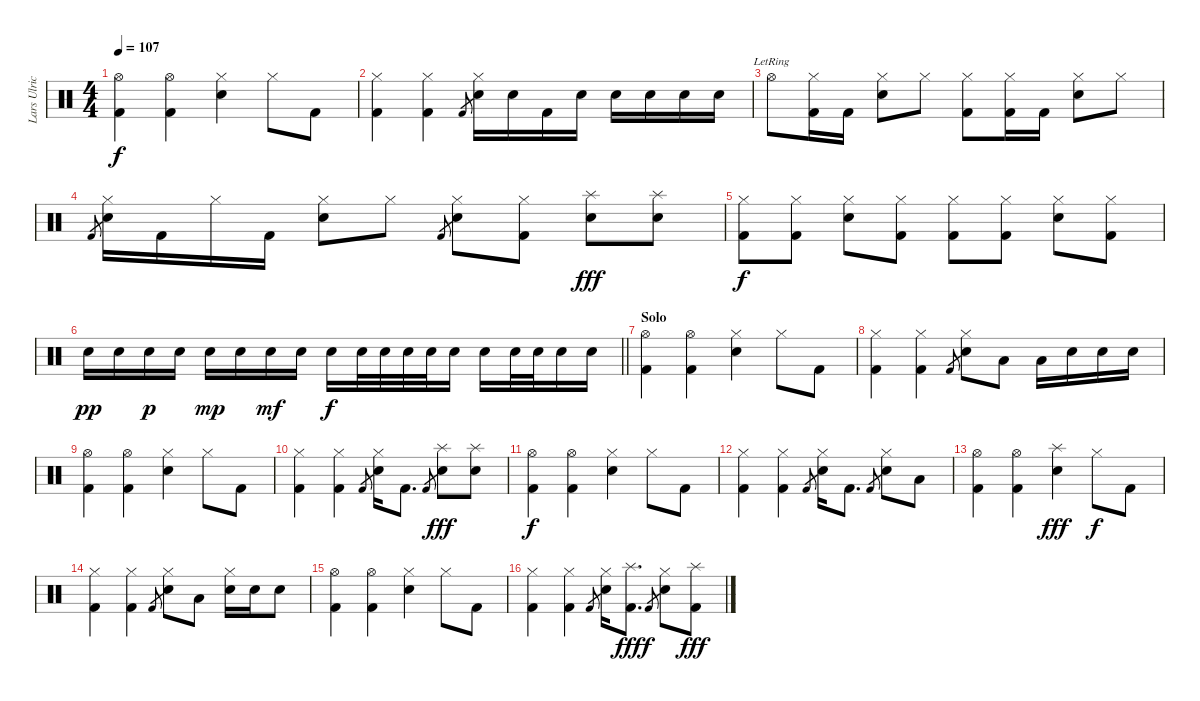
\track ("Lars Ulrich" "Lars Ulric") {instrument percussion}
\staff {score}
\articulation defaults
\ts (4 4)
\tempo 107
\clef neutral
\ks c
("Hi-Hat (open)" "Kick (hit) 2").4{dy f} ("Hi-Hat (open)" "Kick (hit) 2").4 ("Hi-Hat (closed)" "Electric Snare (hit)").4 "Hi-Hat (closed)".8 "Kick (hit) 2".8 |
("Hi-Hat (closed)" "Kick (hit) 2").4 ("Hi-Hat (closed)" "Kick (hit) 2").4 "Kick (hit) 2".8{gr} ("Hi-Hat (closed)" "Electric Snare (hit)").16 "Electric Snare (hit)".16 "Kick (hit) 2".16 "Electric Snare (hit)".16 "Electric Snare (hit)".16 "Electric Snare (hit)".16 "Electric Snare (hit)".16 "Electric Snare (hit)".16 |
"Hi-Hat (open)"{lr}.8 ("Hi-Hat (closed)" "Kick (hit) 2").16 "Kick (hit) 2".16 ("Hi-Hat (closed)" "Electric Snare (hit)").8 "Hi-Hat (closed)".8 ("Hi-Hat (closed)" "Kick (hit) 2").8 ("Hi-Hat (closed)" "Kick (hit) 2").16 "Kick (hit) 2".16 ("Hi-Hat (closed)" "Electric Snare (hit)").8 "Hi-Hat (closed)".8 |
"Kick (hit) 2".8{gr} ("Hi-Hat (closed)" "Electric Snare (hit)").16 "Kick (hit) 2".16 "Hi-Hat (closed)".16 "Kick (hit) 2".16 ("Hi-Hat (closed)" "Electric Snare (hit)").8 "Hi-Hat (closed)".8 "Kick (hit) 2".8{gr} ("Hi-Hat (closed)" "Electric Snare (hit)").8 ("Hi-Hat (closed)" "Kick (hit) 2").8 ("Splash (hit)" "Electric Snare (hit)").8{dy fff} ("Splash (hit)" "Electric Snare (hit)").8 |
("Hi-Hat (closed)" "Kick (hit) 2").8{dy f} ("Hi-Hat (closed)" "Kick (hit) 2").8 ("Hi-Hat (closed)" "Electric Snare (hit)").8 ("Hi-Hat (closed)" "Kick (hit) 2").8 ("Hi-Hat (closed)" "Kick (hit) 2").8 ("Hi-Hat (closed)" "Kick (hit) 2").8 ("Hi-Hat (closed)" "Electric Snare (hit)").8 ("Hi-Hat (closed)" "Kick (hit) 2").8 |
\barLineRight lightlight "Electric Snare (hit)".16{dy pp} "Electric Snare (hit)".16 "Electric Snare (hit)".16{dy p} "Electric Snare (hit)".16 "Electric Snare (hit)".16{dy mp} "Electric Snare (hit)".16 "Electric Snare (hit)".16{dy mf} "Electric Snare (hit)".16 "Electric Snare (hit)".16{dy f} "Electric Snare (hit)".32 "Electric Snare (hit)".32 "Electric Snare (hit)".32 "Electric Snare (hit)".32 "Electric Snare (hit)".16 "Electric Snare (hit)".16 "Electric Snare (hit)".32 "Electric Snare (hit)".32 "Electric Snare (hit)".16 "Electric Snare (hit)".16
|
\section ("" "Solo")
("Hi-Hat (open)" "Kick (hit) 2").4 ("Hi-Hat (open)" "Kick (hit) 2").4 ("Hi-Hat (closed)" "Electric Snare (hit)").4 "Hi-Hat (closed)".8 "Kick (hit) 2".8 |
("Hi-Hat (closed)" "Kick (hit) 2").4 ("Hi-Hat (closed)" "Kick (hit) 2").4 "Kick (hit) 2".8{gr} ("Hi-Hat (closed)" "Electric Snare (hit)").8 "Low Tom (hit)".8 "Low Tom (hit)".16 "Electric Snare (hit)".16 "Electric Snare (hit)".16 "Electric Snare (hit)".16 |
("Hi-Hat (open)" "Kick (hit) 2").4 ("Hi-Hat (open)" "Kick (hit) 2").4 ("Hi-Hat (closed)" "Electric Snare (hit)").4 "Hi-Hat (closed)".8 "Kick (hit) 2".8 |
("Hi-Hat (closed)" "Kick (hit) 2").4 ("Hi-Hat (closed)" "Kick (hit) 2").4 "Kick (hit) 2".8{gr} ("Hi-Hat (closed)" "Electric Snare (hit)").16 "Kick (hit) 2".8{d} "Kick (hit) 2".8{gr} ("Splash (hit)" "Electric Snare (hit)").8{dy fff} ("Splash (hit)" "Electric Snare (hit)").8 |
("Hi-Hat (open)" "Kick (hit) 2").4{dy f} ("Hi-Hat (open)" "Kick (hit) 2").4 ("Hi-Hat (closed)" "Electric Snare (hit)").4 "Hi-Hat (closed)".8 "Kick (hit) 2".8 |
("Hi-Hat (closed)" "Kick (hit) 2").4 ("Hi-Hat (closed)" "Kick (hit) 2").4 "Kick (hit) 2".8{gr} ("Hi-Hat (closed)" "Electric Snare (hit)").16 "Kick (hit) 2".8{d} "Kick (hit) 2".8{gr} ("Hi-Hat (closed)" "Electric Snare (hit)").8 "Low Tom (hit)".8 |
("Hi-Hat (open)" "Kick (hit) 2").4 ("Hi-Hat (open)" "Kick (hit) 2").4 ("Splash (hit)" "Electric Snare (hit)").4{dy fff} "Hi-Hat (closed)".8{dy f} "Kick (hit) 2".8 |
("Hi-Hat (closed)" "Kick (hit) 2").4 ("Hi-Hat (closed)" "Kick (hit) 2").4 "Kick (hit) 2".8{gr} ("Hi-Hat (closed)" "Electric Snare (hit)").8 "Low Tom (hit)".8 ("Hi-Hat (closed)" "Electric Snare (hit)").16 "Electric Snare (hit)".16 "Electric Snare (hit)".8 |
("Hi-Hat (open)" "Kick (hit) 2").4 ("Hi-Hat (open)" "Kick (hit) 2").4 ("Hi-Hat (closed)" "Electric Snare (hit)").4 "Hi-Hat (closed)".8 "Kick (hit) 2".8 |
("Hi-Hat (closed)" "Kick (hit) 2").4 ("Hi-Hat (closed)" "Kick (hit) 2").4 "Kick (hit) 2".8{gr} ("Hi-Hat (closed)" "Electric Snare (hit)").16 ("Splash (hit)" "Kick (hit) 2").8{d dy fff} "Kick (hit) 2".8{gr dy f} ("Hi-Hat (closed)" "Electric Snare (hit)").8 ("Splash (hit)" "Kick (hit) 2").8{dy fff}
